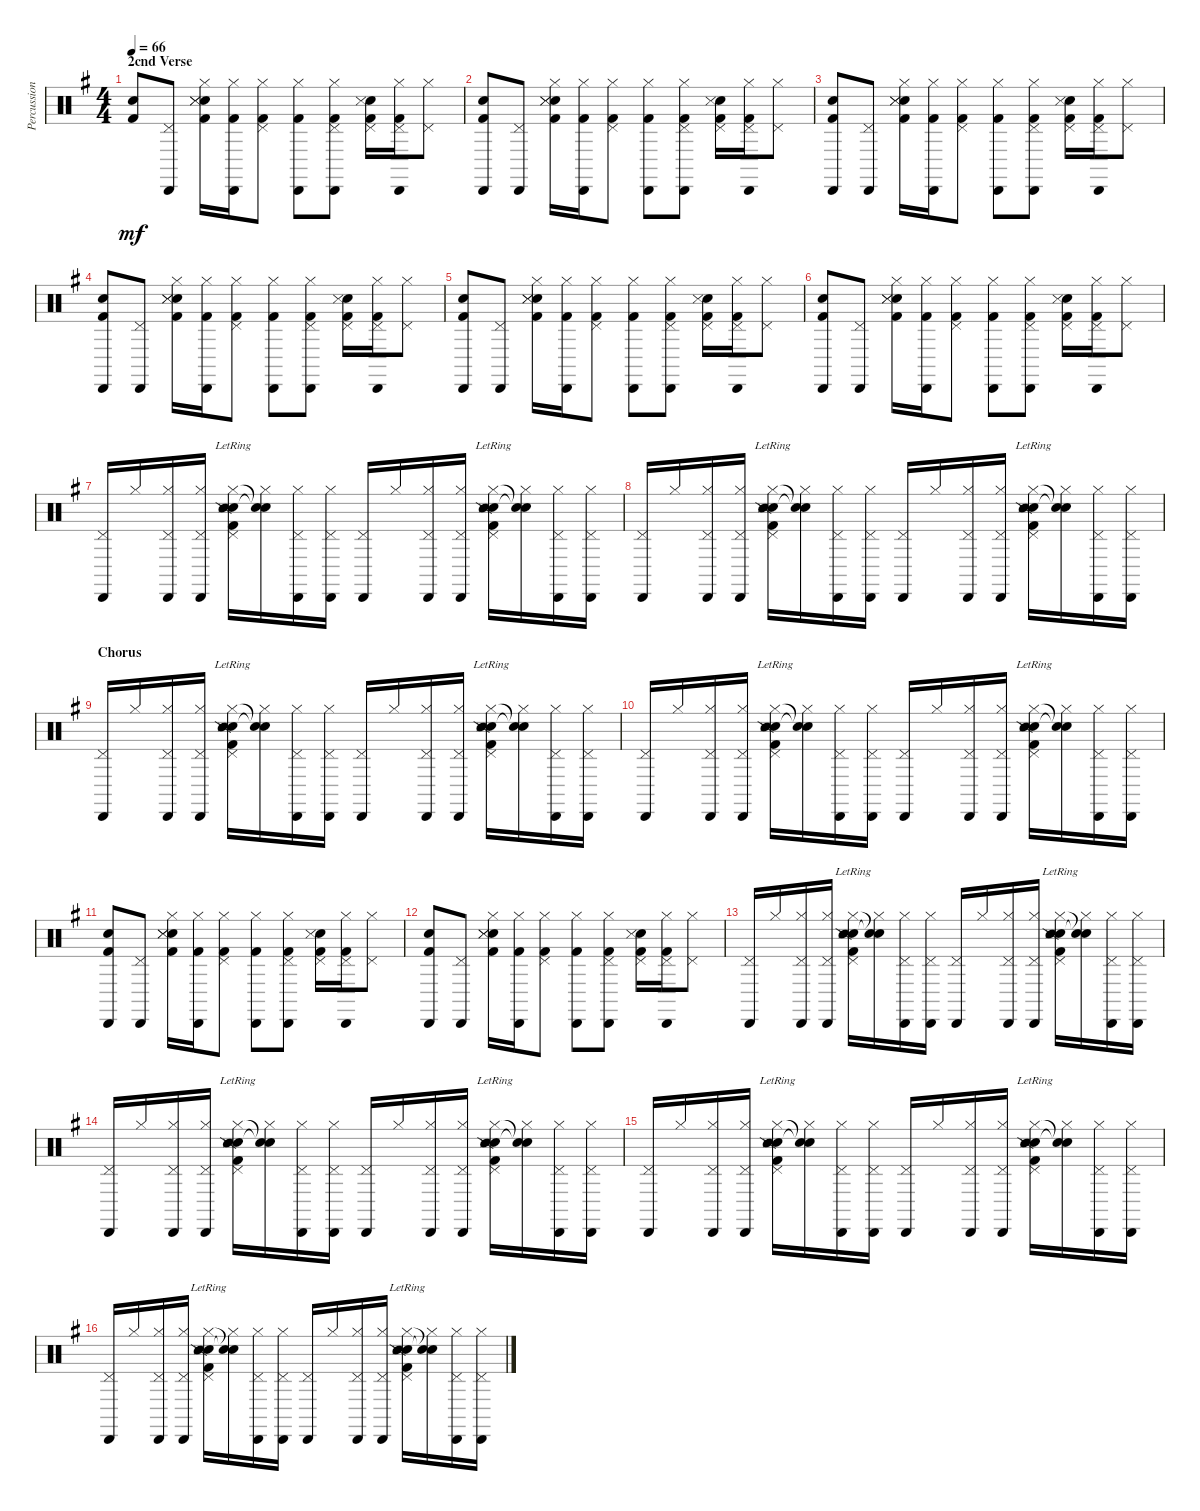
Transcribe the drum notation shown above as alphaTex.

\track ("Percussion" "Percussion") {instrument percussion}
\staff {score}
\articulation defaults
\ts (4 4)
\section ("" "2cnd Verse")
\tempo 66
\clef neutral
\ks g
("Electric Snare (hit)" "Kick (hit) 2").8{dy mf} ("Pedal Hi-Hat (hit)" "Cabasa (hit)").8 ("Hi-Hat (closed)" "Electric Snare (hit)" "Kick (hit) 2" "Snare (side stick) 3" "Snare (side stick) 3").16 ("Hi-Hat (closed)" "Kick (hit) 2" "Cabasa (hit)").16 ("Pedal Hi-Hat (hit)" "Hi-Hat (closed)" "Kick (hit) 2").8 ("Hi-Hat (closed)" "Kick (hit) 2" "Cabasa (hit)").8 ("Pedal Hi-Hat (hit)" "Hi-Hat (closed)" "Kick (hit) 2" "Cabasa (hit)").8 ("Pedal Hi-Hat (hit)" "Electric Snare (hit)" "Kick (hit) 2" "Snare (side stick) 3").16 ("Pedal Hi-Hat (hit)" "Hi-Hat (closed)" "Kick (hit) 2" "Cabasa (hit)").16 ("Pedal Hi-Hat (hit)" "Hi-Hat (closed)").8 |
("Electric Snare (hit)" "Kick (hit) 2" "Cabasa (hit)").8 ("Pedal Hi-Hat (hit)" "Cabasa (hit)").8 ("Hi-Hat (closed)" "Electric Snare (hit)" "Kick (hit) 2" "Snare (side stick) 3" "Snare (side stick) 3").16 ("Hi-Hat (closed)" "Kick (hit) 2" "Cabasa (hit)").16 ("Pedal Hi-Hat (hit)" "Hi-Hat (closed)" "Kick (hit) 2").8 ("Hi-Hat (closed)" "Kick (hit) 2" "Cabasa (hit)").8 ("Pedal Hi-Hat (hit)" "Hi-Hat (closed)" "Kick (hit) 2" "Cabasa (hit)").8 ("Pedal Hi-Hat (hit)" "Electric Snare (hit)" "Kick (hit) 2" "Snare (side stick) 3").16 ("Pedal Hi-Hat (hit)" "Hi-Hat (closed)" "Kick (hit) 2" "Cabasa (hit)").16 ("Pedal Hi-Hat (hit)" "Hi-Hat (closed)").8 |
("Electric Snare (hit)" "Kick (hit) 2" "Cabasa (hit)").8 ("Pedal Hi-Hat (hit)" "Cabasa (hit)").8 ("Hi-Hat (closed)" "Electric Snare (hit)" "Kick (hit) 2" "Snare (side stick) 3" "Snare (side stick) 3").16 ("Hi-Hat (closed)" "Kick (hit) 2" "Cabasa (hit)").16 ("Pedal Hi-Hat (hit)" "Hi-Hat (closed)" "Kick (hit) 2").8 ("Hi-Hat (closed)" "Kick (hit) 2" "Cabasa (hit)").8 ("Pedal Hi-Hat (hit)" "Hi-Hat (closed)" "Kick (hit) 2" "Cabasa (hit)").8 ("Pedal Hi-Hat (hit)" "Electric Snare (hit)" "Kick (hit) 2" "Snare (side stick) 3").16 ("Pedal Hi-Hat (hit)" "Hi-Hat (closed)" "Kick (hit) 2" "Cabasa (hit)").16 ("Pedal Hi-Hat (hit)" "Hi-Hat (closed)").8 |
("Electric Snare (hit)" "Kick (hit) 2" "Cabasa (hit)").8 ("Pedal Hi-Hat (hit)" "Cabasa (hit)").8 ("Hi-Hat (closed)" "Electric Snare (hit)" "Kick (hit) 2" "Snare (side stick) 3" "Snare (side stick) 3").16 ("Hi-Hat (closed)" "Kick (hit) 2" "Cabasa (hit)").16 ("Pedal Hi-Hat (hit)" "Hi-Hat (closed)" "Kick (hit) 2").8 ("Hi-Hat (closed)" "Kick (hit) 2" "Cabasa (hit)").8 ("Pedal Hi-Hat (hit)" "Hi-Hat (closed)" "Kick (hit) 2" "Cabasa (hit)").8 ("Pedal Hi-Hat (hit)" "Electric Snare (hit)" "Kick (hit) 2" "Snare (side stick) 3").16 ("Pedal Hi-Hat (hit)" "Hi-Hat (closed)" "Kick (hit) 2" "Cabasa (hit)").16 ("Pedal Hi-Hat (hit)" "Hi-Hat (closed)").8 |
("Electric Snare (hit)" "Kick (hit) 2" "Cabasa (hit)").8 ("Pedal Hi-Hat (hit)" "Cabasa (hit)").8 ("Hi-Hat (closed)" "Electric Snare (hit)" "Kick (hit) 2" "Snare (side stick) 3" "Snare (side stick) 3").16 ("Hi-Hat (closed)" "Kick (hit) 2" "Cabasa (hit)").16 ("Pedal Hi-Hat (hit)" "Hi-Hat (closed)" "Kick (hit) 2").8 ("Hi-Hat (closed)" "Kick (hit) 2" "Cabasa (hit)").8 ("Pedal Hi-Hat (hit)" "Hi-Hat (closed)" "Kick (hit) 2" "Cabasa (hit)").8 ("Pedal Hi-Hat (hit)" "Electric Snare (hit)" "Kick (hit) 2" "Snare (side stick) 3").16 ("Pedal Hi-Hat (hit)" "Hi-Hat (closed)" "Kick (hit) 2" "Cabasa (hit)").16 ("Pedal Hi-Hat (hit)" "Hi-Hat (closed)").8 |
("Electric Snare (hit)" "Kick (hit) 2" "Cabasa (hit)").8 ("Pedal Hi-Hat (hit)" "Cabasa (hit)").8 ("Hi-Hat (closed)" "Electric Snare (hit)" "Kick (hit) 2" "Snare (side stick) 3" "Snare (side stick) 3").16 ("Hi-Hat (closed)" "Kick (hit) 2" "Cabasa (hit)").16 ("Pedal Hi-Hat (hit)" "Hi-Hat (closed)" "Kick (hit) 2").8 ("Hi-Hat (closed)" "Kick (hit) 2" "Cabasa (hit)").8 ("Pedal Hi-Hat (hit)" "Hi-Hat (closed)" "Kick (hit) 2" "Cabasa (hit)").8 ("Pedal Hi-Hat (hit)" "Electric Snare (hit)" "Kick (hit) 2" "Snare (side stick) 3").16 ("Pedal Hi-Hat (hit)" "Hi-Hat (closed)" "Kick (hit) 2" "Cabasa (hit)").16 ("Pedal Hi-Hat (hit)" "Hi-Hat (closed)").8 |
("Pedal Hi-Hat (hit)" "Cabasa (hit)").16 "Hi-Hat (closed)".16 ("Pedal Hi-Hat (hit)" "Hi-Hat (closed)" "Cabasa (hit)").16 ("Pedal Hi-Hat (hit)" "Hi-Hat (closed)" "Cabasa (hit)").16 ("Pedal Hi-Hat (hit)" "Hi-Hat (closed)" "Electric Snare (hit)" "Kick (hit) 2" "Snare (side stick) 3"{lr} "Snare (side stick) 2"{lr}).16 ("Hi-Hat (closed)" "Snare (hit)"{t} "Snare (hit)"{t}).16 ("Pedal Hi-Hat (hit)" "Hi-Hat (closed)" "Cabasa (hit)").16 ("Pedal Hi-Hat (hit)" "Hi-Hat (closed)" "Cabasa (hit)").16 ("Pedal Hi-Hat (hit)" "Cabasa (hit)").16 "Hi-Hat (closed)".16 ("Pedal Hi-Hat (hit)" "Hi-Hat (closed)" "Cabasa (hit)").16 ("Pedal Hi-Hat (hit)" "Hi-Hat (closed)" "Cabasa (hit)").16 ("Pedal Hi-Hat (hit)" "Hi-Hat (closed)" "Electric Snare (hit)" "Kick (hit) 2" "Snare (side stick) 3"{lr} "Snare (side stick) 2"{lr}).16 ("Hi-Hat (closed)" "Snare (hit)"{t} "Snare (hit)"{t}).16 ("Pedal Hi-Hat (hit)" "Hi-Hat (closed)" "Cabasa (hit)").16 ("Pedal Hi-Hat (hit)" "Hi-Hat (closed)" "Cabasa (hit)").16 |
("Pedal Hi-Hat (hit)" "Cabasa (hit)").16 "Hi-Hat (closed)".16 ("Pedal Hi-Hat (hit)" "Hi-Hat (closed)" "Cabasa (hit)").16 ("Pedal Hi-Hat (hit)" "Hi-Hat (closed)" "Cabasa (hit)").16 ("Pedal Hi-Hat (hit)" "Hi-Hat (closed)" "Electric Snare (hit)" "Kick (hit) 2" "Snare (side stick) 3"{lr} "Snare (side stick) 2"{lr}).16 ("Hi-Hat (closed)" "Snare (hit)"{t} "Snare (hit)"{t}).16 ("Pedal Hi-Hat (hit)" "Hi-Hat (closed)" "Cabasa (hit)").16 ("Pedal Hi-Hat (hit)" "Hi-Hat (closed)" "Cabasa (hit)").16 ("Pedal Hi-Hat (hit)" "Cabasa (hit)").16 "Hi-Hat (closed)".16 ("Pedal Hi-Hat (hit)" "Hi-Hat (closed)" "Cabasa (hit)").16 ("Pedal Hi-Hat (hit)" "Hi-Hat (closed)" "Cabasa (hit)").16 ("Pedal Hi-Hat (hit)" "Hi-Hat (closed)" "Electric Snare (hit)" "Kick (hit) 2" "Snare (side stick) 3"{lr} "Snare (side stick) 2"{lr}).16 ("Hi-Hat (closed)" "Snare (hit)"{t} "Snare (hit)"{t}).16 ("Pedal Hi-Hat (hit)" "Hi-Hat (closed)" "Cabasa (hit)").16 ("Pedal Hi-Hat (hit)" "Hi-Hat (closed)" "Cabasa (hit)").16 |
\section ("" "Chorus")
("Pedal Hi-Hat (hit)" "Cabasa (hit)").16 "Hi-Hat (closed)".16 ("Pedal Hi-Hat (hit)" "Hi-Hat (closed)" "Cabasa (hit)").16 ("Pedal Hi-Hat (hit)" "Hi-Hat (closed)" "Cabasa (hit)").16 ("Pedal Hi-Hat (hit)" "Hi-Hat (closed)" "Electric Snare (hit)" "Kick (hit) 2" "Snare (side stick) 3"{lr} "Snare (side stick) 2"{lr}).16 ("Hi-Hat (closed)" "Snare (hit)"{t} "Snare (hit)"{t}).16 ("Pedal Hi-Hat (hit)" "Hi-Hat (closed)" "Cabasa (hit)").16 ("Pedal Hi-Hat (hit)" "Hi-Hat (closed)" "Cabasa (hit)").16 ("Pedal Hi-Hat (hit)" "Cabasa (hit)").16 "Hi-Hat (closed)".16 ("Pedal Hi-Hat (hit)" "Hi-Hat (closed)" "Cabasa (hit)").16 ("Pedal Hi-Hat (hit)" "Hi-Hat (closed)" "Cabasa (hit)").16 ("Pedal Hi-Hat (hit)" "Hi-Hat (closed)" "Electric Snare (hit)" "Kick (hit) 2" "Snare (side stick) 3"{lr} "Snare (side stick) 2"{lr}).16 ("Hi-Hat (closed)" "Snare (hit)"{t} "Snare (hit)"{t}).16 ("Pedal Hi-Hat (hit)" "Hi-Hat (closed)" "Cabasa (hit)").16 ("Pedal Hi-Hat (hit)" "Hi-Hat (closed)" "Cabasa (hit)").16 |
("Pedal Hi-Hat (hit)" "Cabasa (hit)").16 "Hi-Hat (closed)".16 ("Pedal Hi-Hat (hit)" "Hi-Hat (closed)" "Cabasa (hit)").16 ("Pedal Hi-Hat (hit)" "Hi-Hat (closed)" "Cabasa (hit)").16 ("Pedal Hi-Hat (hit)" "Hi-Hat (closed)" "Electric Snare (hit)" "Kick (hit) 2" "Snare (side stick) 3"{lr} "Snare (side stick) 2"{lr}).16 ("Hi-Hat (closed)" "Snare (hit)"{t} "Snare (hit)"{t}).16 ("Pedal Hi-Hat (hit)" "Hi-Hat (closed)" "Cabasa (hit)").16 ("Pedal Hi-Hat (hit)" "Hi-Hat (closed)" "Cabasa (hit)").16 ("Pedal Hi-Hat (hit)" "Cabasa (hit)").16 "Hi-Hat (closed)".16 ("Pedal Hi-Hat (hit)" "Hi-Hat (closed)" "Cabasa (hit)").16 ("Pedal Hi-Hat (hit)" "Hi-Hat (closed)" "Cabasa (hit)").16 ("Pedal Hi-Hat (hit)" "Hi-Hat (closed)" "Electric Snare (hit)" "Kick (hit) 2" "Snare (side stick) 3"{lr} "Snare (side stick) 2"{lr}).16 ("Hi-Hat (closed)" "Snare (hit)"{t} "Snare (hit)"{t}).16 ("Pedal Hi-Hat (hit)" "Hi-Hat (closed)" "Cabasa (hit)").16 ("Pedal Hi-Hat (hit)" "Hi-Hat (closed)" "Cabasa (hit)").16 |
("Electric Snare (hit)" "Kick (hit) 2" "Cabasa (hit)").8 ("Pedal Hi-Hat (hit)" "Cabasa (hit)").8 ("Hi-Hat (closed)" "Electric Snare (hit)" "Kick (hit) 2" "Snare (side stick) 3" "Snare (side stick) 3").16 ("Hi-Hat (closed)" "Kick (hit) 2" "Cabasa (hit)").16 ("Pedal Hi-Hat (hit)" "Hi-Hat (closed)" "Kick (hit) 2").8 ("Hi-Hat (closed)" "Kick (hit) 2" "Cabasa (hit)").8 ("Pedal Hi-Hat (hit)" "Hi-Hat (closed)" "Kick (hit) 2" "Cabasa (hit)").8 ("Pedal Hi-Hat (hit)" "Electric Snare (hit)" "Kick (hit) 2" "Snare (side stick) 3").16 ("Pedal Hi-Hat (hit)" "Hi-Hat (closed)" "Kick (hit) 2" "Cabasa (hit)").16 ("Pedal Hi-Hat (hit)" "Hi-Hat (closed)").8 |
("Electric Snare (hit)" "Kick (hit) 2" "Cabasa (hit)").8 ("Pedal Hi-Hat (hit)" "Cabasa (hit)").8 ("Hi-Hat (closed)" "Electric Snare (hit)" "Kick (hit) 2" "Snare (side stick) 3" "Snare (side stick) 3").16 ("Hi-Hat (closed)" "Kick (hit) 2" "Cabasa (hit)").16 ("Pedal Hi-Hat (hit)" "Hi-Hat (closed)" "Kick (hit) 2").8 ("Hi-Hat (closed)" "Kick (hit) 2" "Cabasa (hit)").8 ("Pedal Hi-Hat (hit)" "Hi-Hat (closed)" "Kick (hit) 2" "Cabasa (hit)").8 ("Pedal Hi-Hat (hit)" "Electric Snare (hit)" "Kick (hit) 2" "Snare (side stick) 3").16 ("Pedal Hi-Hat (hit)" "Hi-Hat (closed)" "Kick (hit) 2" "Cabasa (hit)").16 ("Pedal Hi-Hat (hit)" "Hi-Hat (closed)").8 |
("Pedal Hi-Hat (hit)" "Cabasa (hit)").16 "Hi-Hat (closed)".16 ("Pedal Hi-Hat (hit)" "Hi-Hat (closed)" "Cabasa (hit)").16 ("Pedal Hi-Hat (hit)" "Hi-Hat (closed)" "Cabasa (hit)").16 ("Pedal Hi-Hat (hit)" "Hi-Hat (closed)" "Electric Snare (hit)" "Kick (hit) 2" "Snare (side stick) 3"{lr} "Snare (side stick) 2"{lr}).16 ("Hi-Hat (closed)" "Snare (hit)"{t} "Snare (hit)"{t}).16 ("Pedal Hi-Hat (hit)" "Hi-Hat (closed)" "Cabasa (hit)").16 ("Pedal Hi-Hat (hit)" "Hi-Hat (closed)" "Cabasa (hit)").16 ("Pedal Hi-Hat (hit)" "Cabasa (hit)").16 "Hi-Hat (closed)".16 ("Pedal Hi-Hat (hit)" "Hi-Hat (closed)" "Cabasa (hit)").16 ("Pedal Hi-Hat (hit)" "Hi-Hat (closed)" "Cabasa (hit)").16 ("Pedal Hi-Hat (hit)" "Hi-Hat (closed)" "Electric Snare (hit)" "Kick (hit) 2" "Snare (side stick) 3"{lr} "Snare (side stick) 2"{lr}).16 ("Hi-Hat (closed)" "Snare (hit)"{t} "Snare (hit)"{t}).16 ("Pedal Hi-Hat (hit)" "Hi-Hat (closed)" "Cabasa (hit)").16 ("Pedal Hi-Hat (hit)" "Hi-Hat (closed)" "Cabasa (hit)").16 |
("Pedal Hi-Hat (hit)" "Cabasa (hit)").16 "Hi-Hat (closed)".16 ("Pedal Hi-Hat (hit)" "Hi-Hat (closed)" "Cabasa (hit)").16 ("Pedal Hi-Hat (hit)" "Hi-Hat (closed)" "Cabasa (hit)").16 ("Pedal Hi-Hat (hit)" "Hi-Hat (closed)" "Electric Snare (hit)" "Kick (hit) 2" "Snare (side stick) 3"{lr} "Snare (side stick) 2"{lr}).16 ("Hi-Hat (closed)" "Snare (hit)"{t} "Snare (hit)"{t}).16 ("Pedal Hi-Hat (hit)" "Hi-Hat (closed)" "Cabasa (hit)").16 ("Pedal Hi-Hat (hit)" "Hi-Hat (closed)" "Cabasa (hit)").16 ("Pedal Hi-Hat (hit)" "Cabasa (hit)").16 "Hi-Hat (closed)".16 ("Pedal Hi-Hat (hit)" "Hi-Hat (closed)" "Cabasa (hit)").16 ("Pedal Hi-Hat (hit)" "Hi-Hat (closed)" "Cabasa (hit)").16 ("Pedal Hi-Hat (hit)" "Hi-Hat (closed)" "Electric Snare (hit)" "Kick (hit) 2" "Snare (side stick) 3"{lr} "Snare (side stick) 2"{lr}).16 ("Hi-Hat (closed)" "Snare (hit)"{t} "Snare (hit)"{t}).16 ("Pedal Hi-Hat (hit)" "Hi-Hat (closed)" "Cabasa (hit)").16 ("Pedal Hi-Hat (hit)" "Hi-Hat (closed)" "Cabasa (hit)").16 |
("Pedal Hi-Hat (hit)" "Cabasa (hit)").16 "Hi-Hat (closed)".16 ("Pedal Hi-Hat (hit)" "Hi-Hat (closed)" "Cabasa (hit)").16 ("Pedal Hi-Hat (hit)" "Hi-Hat (closed)" "Cabasa (hit)").16 ("Pedal Hi-Hat (hit)" "Hi-Hat (closed)" "Electric Snare (hit)" "Kick (hit) 2" "Snare (side stick) 3"{lr} "Snare (side stick) 2"{lr}).16 ("Hi-Hat (closed)" "Snare (hit)"{t} "Snare (hit)"{t}).16 ("Pedal Hi-Hat (hit)" "Hi-Hat (closed)" "Cabasa (hit)").16 ("Pedal Hi-Hat (hit)" "Hi-Hat (closed)" "Cabasa (hit)").16 ("Pedal Hi-Hat (hit)" "Cabasa (hit)").16 "Hi-Hat (closed)".16 ("Pedal Hi-Hat (hit)" "Hi-Hat (closed)" "Cabasa (hit)").16 ("Pedal Hi-Hat (hit)" "Hi-Hat (closed)" "Cabasa (hit)").16 ("Pedal Hi-Hat (hit)" "Hi-Hat (closed)" "Electric Snare (hit)" "Kick (hit) 2" "Snare (side stick) 3"{lr} "Snare (side stick) 2"{lr}).16 ("Hi-Hat (closed)" "Snare (hit)"{t} "Snare (hit)"{t}).16 ("Pedal Hi-Hat (hit)" "Hi-Hat (closed)" "Cabasa (hit)").16 ("Pedal Hi-Hat (hit)" "Hi-Hat (closed)" "Cabasa (hit)").16 |
("Pedal Hi-Hat (hit)" "Cabasa (hit)").16 "Hi-Hat (closed)".16 ("Pedal Hi-Hat (hit)" "Hi-Hat (closed)" "Cabasa (hit)").16 ("Pedal Hi-Hat (hit)" "Hi-Hat (closed)" "Cabasa (hit)").16 ("Pedal Hi-Hat (hit)" "Hi-Hat (closed)" "Electric Snare (hit)" "Kick (hit) 2" "Snare (side stick) 3"{lr} "Snare (side stick) 2"{lr}).16 ("Hi-Hat (closed)" "Snare (hit)"{t} "Snare (hit)"{t}).16 ("Pedal Hi-Hat (hit)" "Hi-Hat (closed)" "Cabasa (hit)").16 ("Pedal Hi-Hat (hit)" "Hi-Hat (closed)" "Cabasa (hit)").16 ("Pedal Hi-Hat (hit)" "Cabasa (hit)").16 "Hi-Hat (closed)".16 ("Pedal Hi-Hat (hit)" "Hi-Hat (closed)" "Cabasa (hit)").16 ("Pedal Hi-Hat (hit)" "Hi-Hat (closed)" "Cabasa (hit)").16 ("Pedal Hi-Hat (hit)" "Hi-Hat (closed)" "Electric Snare (hit)" "Kick (hit) 2" "Snare (side stick) 3"{lr} "Snare (side stick) 2"{lr}).16 ("Hi-Hat (closed)" "Snare (hit)"{t} "Snare (hit)"{t}).16 ("Pedal Hi-Hat (hit)" "Hi-Hat (closed)" "Cabasa (hit)").16 ("Pedal Hi-Hat (hit)" "Hi-Hat (closed)" "Cabasa (hit)").16
